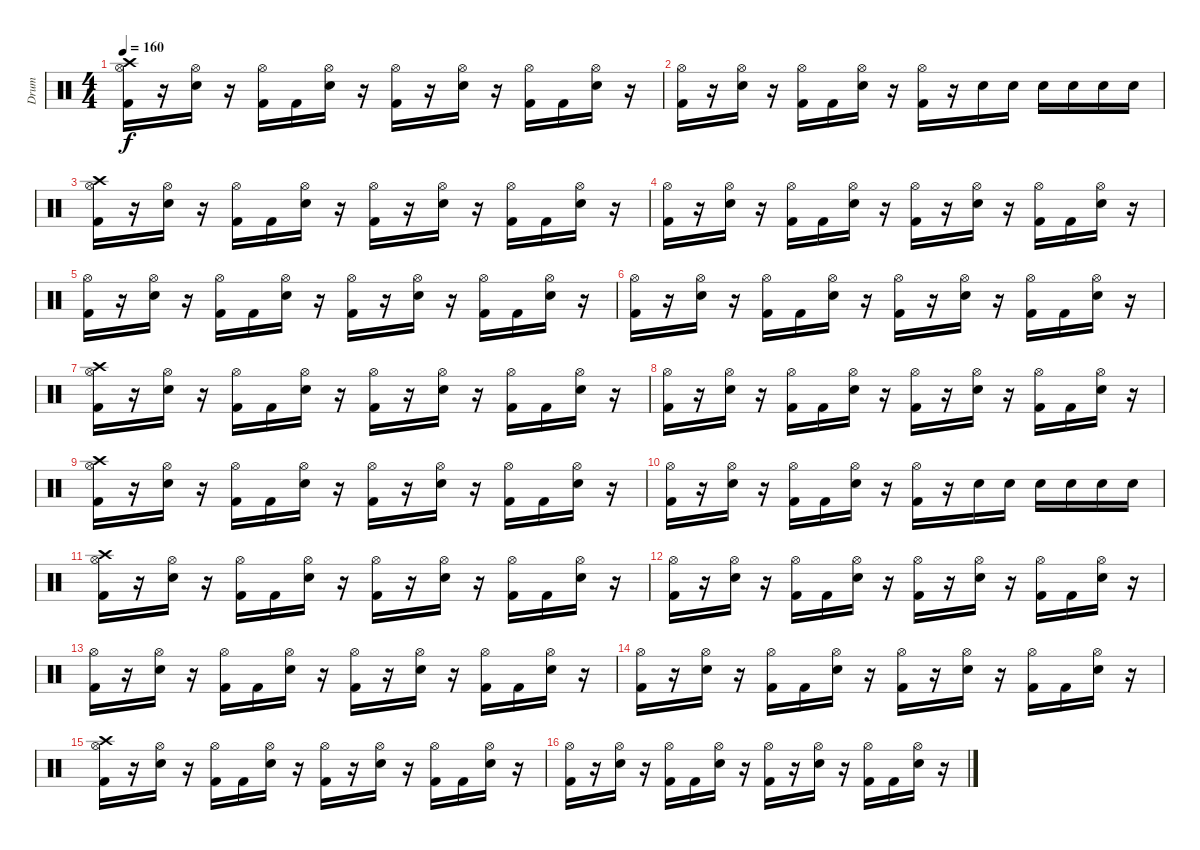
\track ("Drum" "Drum") {instrument percussion}
\staff {score}
\articulation defaults
\ts (4 4)
\tempo 160
\clef neutral
\ks c
("Crash high (hit)" "Hi-Hat (open)" "Kick (hit) 2").16{dy f} r.16 ("Hi-Hat (open)" "Electric Snare (hit)").16 r.16 ("Hi-Hat (open)" "Kick (hit) 2").16 "Kick (hit) 2".16 ("Hi-Hat (open)" "Electric Snare (hit)").16 r.16 ("Hi-Hat (open)" "Kick (hit) 2").16 r.16 ("Hi-Hat (open)" "Electric Snare (hit)").16 r.16 ("Hi-Hat (open)" "Kick (hit) 2").16 "Kick (hit) 2".16 ("Hi-Hat (open)" "Electric Snare (hit)").16 r.16 |
("Hi-Hat (open)" "Kick (hit) 2").16 r.16 ("Hi-Hat (open)" "Electric Snare (hit)").16 r.16 ("Hi-Hat (open)" "Kick (hit) 2").16 "Kick (hit) 2".16 ("Hi-Hat (open)" "Electric Snare (hit)").16 r.16 ("Hi-Hat (open)" "Kick (hit) 2").16 r.16 "Electric Snare (hit)".16 "Electric Snare (hit)".16 "Electric Snare (hit)".16 "Electric Snare (hit)".16 "Electric Snare (hit)".16 "Electric Snare (hit)".16 |
("Crash high (hit)" "Hi-Hat (open)" "Kick (hit) 2").16 r.16 ("Hi-Hat (open)" "Electric Snare (hit)").16 r.16 ("Hi-Hat (open)" "Kick (hit) 2").16 "Kick (hit) 2".16 ("Hi-Hat (open)" "Electric Snare (hit)").16 r.16 ("Hi-Hat (open)" "Kick (hit) 2").16 r.16 ("Hi-Hat (open)" "Electric Snare (hit)").16 r.16 ("Hi-Hat (open)" "Kick (hit) 2").16 "Kick (hit) 2".16 ("Hi-Hat (open)" "Electric Snare (hit)").16 r.16 |
("Hi-Hat (open)" "Kick (hit) 2").16 r.16 ("Hi-Hat (open)" "Electric Snare (hit)").16 r.16 ("Hi-Hat (open)" "Kick (hit) 2").16 "Kick (hit) 2".16 ("Hi-Hat (open)" "Electric Snare (hit)").16 r.16 ("Hi-Hat (open)" "Kick (hit) 2").16 r.16 ("Hi-Hat (open)" "Electric Snare (hit)").16 r.16 ("Hi-Hat (open)" "Kick (hit) 2").16 "Kick (hit) 2".16 ("Hi-Hat (open)" "Electric Snare (hit)").16 r.16 |
("Hi-Hat (open)" "Kick (hit) 2").16 r.16 ("Hi-Hat (open)" "Electric Snare (hit)").16 r.16 ("Hi-Hat (open)" "Kick (hit) 2").16 "Kick (hit) 2".16 ("Hi-Hat (open)" "Electric Snare (hit)").16 r.16 ("Hi-Hat (open)" "Kick (hit) 2").16 r.16 ("Hi-Hat (open)" "Electric Snare (hit)").16 r.16 ("Hi-Hat (open)" "Kick (hit) 2").16 "Kick (hit) 2".16 ("Hi-Hat (open)" "Electric Snare (hit)").16 r.16 |
("Hi-Hat (open)" "Kick (hit) 2").16 r.16 ("Hi-Hat (open)" "Electric Snare (hit)").16 r.16 ("Hi-Hat (open)" "Kick (hit) 2").16 "Kick (hit) 2".16 ("Hi-Hat (open)" "Electric Snare (hit)").16 r.16 ("Hi-Hat (open)" "Kick (hit) 2").16 r.16 ("Hi-Hat (open)" "Electric Snare (hit)").16 r.16 ("Hi-Hat (open)" "Kick (hit) 2").16 "Kick (hit) 2".16 ("Hi-Hat (open)" "Electric Snare (hit)").16 r.16 |
("Crash high (hit)" "Hi-Hat (open)" "Kick (hit) 2").16 r.16 ("Hi-Hat (open)" "Electric Snare (hit)").16 r.16 ("Hi-Hat (open)" "Kick (hit) 2").16 "Kick (hit) 2".16 ("Hi-Hat (open)" "Electric Snare (hit)").16 r.16 ("Hi-Hat (open)" "Kick (hit) 2").16 r.16 ("Hi-Hat (open)" "Electric Snare (hit)").16 r.16 ("Hi-Hat (open)" "Kick (hit) 2").16 "Kick (hit) 2".16 ("Hi-Hat (open)" "Electric Snare (hit)").16 r.16 |
("Hi-Hat (open)" "Kick (hit) 2").16 r.16 ("Hi-Hat (open)" "Electric Snare (hit)").16 r.16 ("Hi-Hat (open)" "Kick (hit) 2").16 "Kick (hit) 2".16 ("Hi-Hat (open)" "Electric Snare (hit)").16 r.16 ("Hi-Hat (open)" "Kick (hit) 2").16 r.16 ("Hi-Hat (open)" "Electric Snare (hit)").16 r.16 ("Hi-Hat (open)" "Kick (hit) 2").16 "Kick (hit) 2".16 ("Hi-Hat (open)" "Electric Snare (hit)").16 r.16 |
("Crash high (hit)" "Hi-Hat (open)" "Kick (hit) 2").16 r.16 ("Hi-Hat (open)" "Electric Snare (hit)").16 r.16 ("Hi-Hat (open)" "Kick (hit) 2").16 "Kick (hit) 2".16 ("Hi-Hat (open)" "Electric Snare (hit)").16 r.16 ("Hi-Hat (open)" "Kick (hit) 2").16 r.16 ("Hi-Hat (open)" "Electric Snare (hit)").16 r.16 ("Hi-Hat (open)" "Kick (hit) 2").16 "Kick (hit) 2".16 ("Hi-Hat (open)" "Electric Snare (hit)").16 r.16 |
("Hi-Hat (open)" "Kick (hit) 2").16 r.16 ("Hi-Hat (open)" "Electric Snare (hit)").16 r.16 ("Hi-Hat (open)" "Kick (hit) 2").16 "Kick (hit) 2".16 ("Hi-Hat (open)" "Electric Snare (hit)").16 r.16 ("Hi-Hat (open)" "Kick (hit) 2").16 r.16 "Electric Snare (hit)".16 "Electric Snare (hit)".16 "Electric Snare (hit)".16 "Electric Snare (hit)".16 "Electric Snare (hit)".16 "Electric Snare (hit)".16 |
("Crash high (hit)" "Hi-Hat (open)" "Kick (hit) 2").16 r.16 ("Hi-Hat (open)" "Electric Snare (hit)").16 r.16 ("Hi-Hat (open)" "Kick (hit) 2").16 "Kick (hit) 2".16 ("Hi-Hat (open)" "Electric Snare (hit)").16 r.16 ("Hi-Hat (open)" "Kick (hit) 2").16 r.16 ("Hi-Hat (open)" "Electric Snare (hit)").16 r.16 ("Hi-Hat (open)" "Kick (hit) 2").16 "Kick (hit) 2".16 ("Hi-Hat (open)" "Electric Snare (hit)").16 r.16 |
("Hi-Hat (open)" "Kick (hit) 2").16 r.16 ("Hi-Hat (open)" "Electric Snare (hit)").16 r.16 ("Hi-Hat (open)" "Kick (hit) 2").16 "Kick (hit) 2".16 ("Hi-Hat (open)" "Electric Snare (hit)").16 r.16 ("Hi-Hat (open)" "Kick (hit) 2").16 r.16 ("Hi-Hat (open)" "Electric Snare (hit)").16 r.16 ("Hi-Hat (open)" "Kick (hit) 2").16 "Kick (hit) 2".16 ("Hi-Hat (open)" "Electric Snare (hit)").16 r.16 |
("Hi-Hat (open)" "Kick (hit) 2").16 r.16 ("Hi-Hat (open)" "Electric Snare (hit)").16 r.16 ("Hi-Hat (open)" "Kick (hit) 2").16 "Kick (hit) 2".16 ("Hi-Hat (open)" "Electric Snare (hit)").16 r.16 ("Hi-Hat (open)" "Kick (hit) 2").16 r.16 ("Hi-Hat (open)" "Electric Snare (hit)").16 r.16 ("Hi-Hat (open)" "Kick (hit) 2").16 "Kick (hit) 2".16 ("Hi-Hat (open)" "Electric Snare (hit)").16 r.16 |
("Hi-Hat (open)" "Kick (hit) 2").16 r.16 ("Hi-Hat (open)" "Electric Snare (hit)").16 r.16 ("Hi-Hat (open)" "Kick (hit) 2").16 "Kick (hit) 2".16 ("Hi-Hat (open)" "Electric Snare (hit)").16 r.16 ("Hi-Hat (open)" "Kick (hit) 2").16 r.16 ("Hi-Hat (open)" "Electric Snare (hit)").16 r.16 ("Hi-Hat (open)" "Kick (hit) 2").16 "Kick (hit) 2".16 ("Hi-Hat (open)" "Electric Snare (hit)").16 r.16 |
("Crash high (hit)" "Hi-Hat (open)" "Kick (hit) 2").16 r.16 ("Hi-Hat (open)" "Electric Snare (hit)").16 r.16 ("Hi-Hat (open)" "Kick (hit) 2").16 "Kick (hit) 2".16 ("Hi-Hat (open)" "Electric Snare (hit)").16 r.16 ("Hi-Hat (open)" "Kick (hit) 2").16 r.16 ("Hi-Hat (open)" "Electric Snare (hit)").16 r.16 ("Hi-Hat (open)" "Kick (hit) 2").16 "Kick (hit) 2".16 ("Hi-Hat (open)" "Electric Snare (hit)").16 r.16 |
("Hi-Hat (open)" "Kick (hit) 2").16 r.16 ("Hi-Hat (open)" "Electric Snare (hit)").16 r.16 ("Hi-Hat (open)" "Kick (hit) 2").16 "Kick (hit) 2".16 ("Hi-Hat (open)" "Electric Snare (hit)").16 r.16 ("Hi-Hat (open)" "Kick (hit) 2").16 r.16 ("Hi-Hat (open)" "Electric Snare (hit)").16 r.16 ("Hi-Hat (open)" "Kick (hit) 2").16 "Kick (hit) 2".16 ("Hi-Hat (open)" "Electric Snare (hit)").16 r.16
